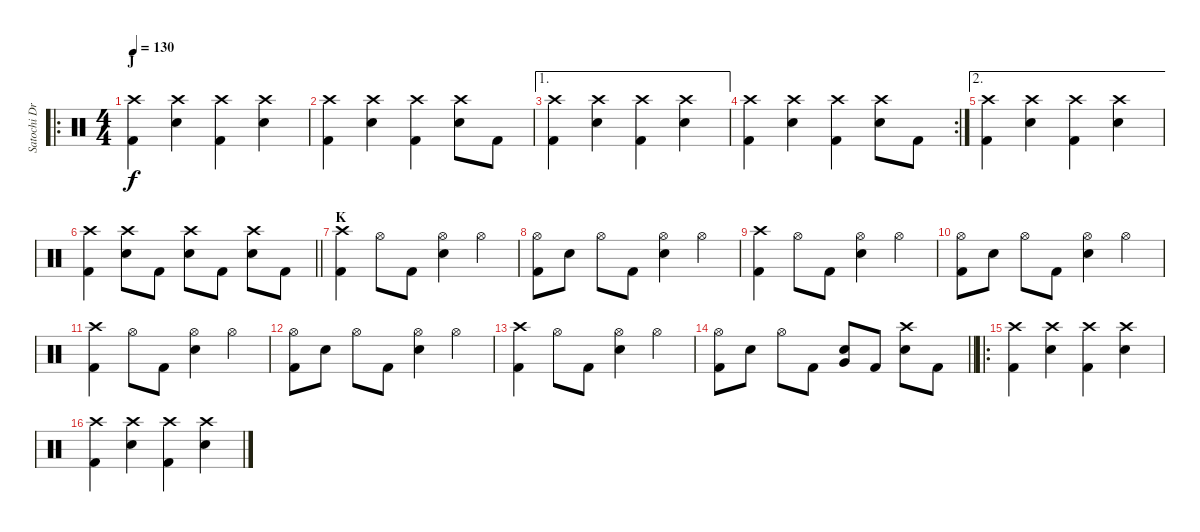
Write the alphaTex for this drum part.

\track ("Satochi Drums" "Satochi Dr") {instrument percussion}
\staff {score}
\articulation defaults
\ro
\ts (4 4)
\section ("" "J")
\tempo 130
\clef neutral
\ks c
("Crash high (hit)" "Kick (hit) 2").4{dy f} ("Crash high (hit)" "Snare (hit) 2").4 ("Crash high (hit)" "Kick (hit) 2").4 ("Crash high (hit)" "Snare (hit) 2").4 |
("Crash high (hit)" "Kick (hit) 2").4 ("Crash high (hit)" "Snare (hit) 2").4 ("Crash high (hit)" "Kick (hit) 2").4 ("Crash high (hit)" "Snare (hit) 2").8 "Kick (hit) 2".8 |
\ae 1
("Crash high (hit)" "Kick (hit) 2").4 ("Crash high (hit)" "Snare (hit) 2").4 ("Crash high (hit)" "Kick (hit) 2").4 ("Crash high (hit)" "Snare (hit) 2").4 |
\rc 2
("Crash high (hit)" "Kick (hit) 2").4 ("Crash high (hit)" "Snare (hit) 2").4 ("Crash high (hit)" "Kick (hit) 2").4 ("Crash high (hit)" "Snare (hit) 2").8 "Kick (hit) 2".8 |
\ae 2
("Crash high (hit)" "Kick (hit) 2").4 ("Crash high (hit)" "Snare (hit) 2").4 ("Crash high (hit)" "Kick (hit) 2").4 ("Crash high (hit)" "Snare (hit) 2").4 |
\barLineRight lightlight
("Crash high (hit)" "Kick (hit) 2").4 ("Crash high (hit)" "Snare (hit) 2").8 "Kick (hit) 2".8 ("Crash high (hit)" "Snare (hit) 2").8 "Kick (hit) 2".8 ("Crash high (hit)" "Snare (hit) 2").8 "Kick (hit) 2".8 |
\section ("" "K")
("Crash high (hit)" "Kick (hit) 2").4 "Hi-Hat (open)".8 "Kick (hit) 2".8 ("Hi-Hat (open)" "Snare (hit) 2").4 "Hi-Hat (open)".4 |
("Hi-Hat (open)" "Kick (hit) 2").8 "Snare (hit) 2".8 "Hi-Hat (open)".8 "Kick (hit) 2".8 ("Hi-Hat (open)" "Snare (hit) 2").4 "Hi-Hat (open)".4 |
("Crash high (hit)" "Kick (hit) 2").4 "Hi-Hat (open)".8 "Kick (hit) 2".8 ("Hi-Hat (open)" "Snare (hit) 2").4 "Hi-Hat (open)".4 |
("Hi-Hat (open)" "Kick (hit) 2").8 "Snare (hit) 2".8 "Hi-Hat (open)".8 "Kick (hit) 2".8 ("Hi-Hat (open)" "Snare (hit) 2").4 "Hi-Hat (open)".4 |
("Crash high (hit)" "Kick (hit) 2").4 "Hi-Hat (open)".8 "Kick (hit) 2".8 ("Hi-Hat (open)" "Snare (hit) 2").4 "Hi-Hat (open)".4 |
("Hi-Hat (open)" "Kick (hit) 2").8 "Snare (hit) 2".8 "Hi-Hat (open)".8 "Kick (hit) 2".8 ("Hi-Hat (open)" "Snare (hit) 2").4 "Hi-Hat (open)".4 |
("Crash high (hit)" "Kick (hit) 2").4 "Hi-Hat (open)".8 "Kick (hit) 2".8 ("Hi-Hat (open)" "Snare (hit) 2").4 "Hi-Hat (open)".4 |
\barLineRight lightlight
("Hi-Hat (open)" "Kick (hit) 2").8 "Snare (hit) 2".8 "Hi-Hat (open)".8 "Kick (hit) 2".8 ("Snare (hit) 2" "Very Low Tom (hit)").8 "Kick (hit) 2".8 ("Crash high (hit)" "Snare (hit) 2").8 "Kick (hit) 2".8 |
\ro
("Crash high (hit)" "Kick (hit) 2").4 ("Crash high (hit)" "Snare (hit) 2").4 ("Crash high (hit)" "Kick (hit) 2").4 ("Crash high (hit)" "Snare (hit) 2").4 |
("Crash high (hit)" "Kick (hit) 2").4 ("Crash high (hit)" "Snare (hit) 2").4 ("Crash high (hit)" "Kick (hit) 2").4 ("Crash high (hit)" "Snare (hit) 2").4
